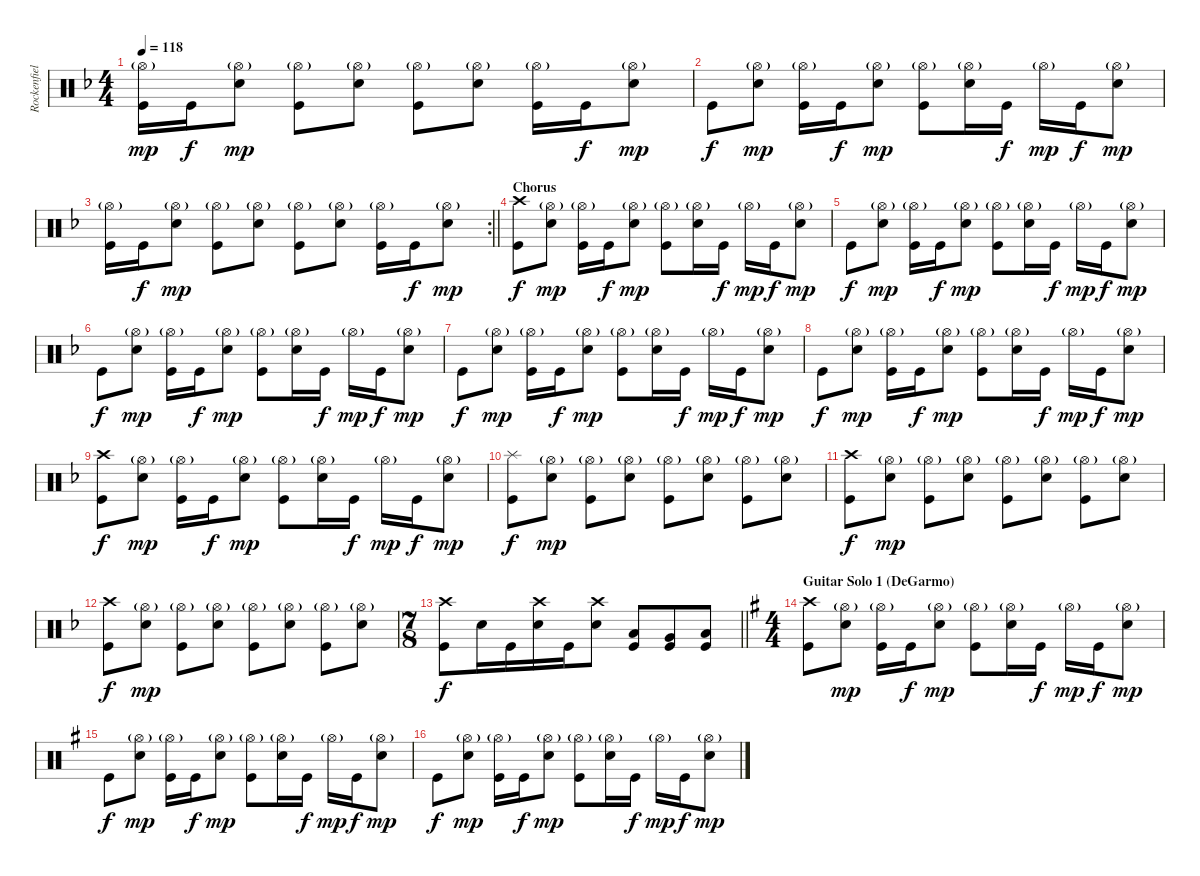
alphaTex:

\track ("Rockenfield" "Rockenfiel") {instrument percussion}
\staff {score}
\articulation defaults
\ts (4 4)
\tempo 118
\clef neutral
\ks f
("Hi-Hat (open)"{g} "Kick (hit)").16{dy mp} "Kick (hit)".16{dy f} ("Hi-Hat (open)"{g} "Snare (hit) 2").8{dy mp} ("Hi-Hat (open)"{g} "Kick (hit)").8 ("Hi-Hat (open)"{g} "Snare (hit) 2").8 ("Hi-Hat (open)"{g} "Kick (hit)").8 ("Hi-Hat (open)"{g} "Snare (hit) 2").8 ("Hi-Hat (open)"{g} "Kick (hit)").16 "Kick (hit)".16{dy f} ("Hi-Hat (open)"{g} "Snare (hit) 2").8{dy mp} |
"Kick (hit)".8{dy f} ("Hi-Hat (open)"{g} "Snare (hit) 2").8{dy mp} ("Hi-Hat (open)"{g} "Kick (hit)").16 "Kick (hit)".16{dy f} ("Hi-Hat (open)"{g} "Snare (hit) 2").8{dy mp} ("Hi-Hat (open)"{g} "Kick (hit)").8 ("Hi-Hat (open)"{g} "Snare (hit) 2").16 "Kick (hit)".16{dy f} "Hi-Hat (open)"{g}.16{dy mp} "Kick (hit)".16{dy f} ("Hi-Hat (open)"{g} "Snare (hit) 2").8{dy mp} |
\rc 2
\barLineRight lightlight
("Hi-Hat (open)"{g} "Kick (hit)").16 "Kick (hit)".16{dy f} ("Hi-Hat (open)"{g} "Snare (hit) 2").8{dy mp} ("Hi-Hat (open)"{g} "Kick (hit)").8 ("Hi-Hat (open)"{g} "Snare (hit) 2").8 ("Hi-Hat (open)"{g} "Kick (hit)").8 ("Hi-Hat (open)"{g} "Snare (hit) 2").8 ("Hi-Hat (open)"{g} "Kick (hit)").16 "Kick (hit)".16{dy f} ("Hi-Hat (open)"{g} "Snare (hit) 2").8{dy mp} |
\section ("" "Chorus")
("Crash high (hit)" "Kick (hit)").8{dy f} ("Hi-Hat (open)"{g} "Snare (hit) 2").8{dy mp} ("Hi-Hat (open)"{g} "Kick (hit)").16 "Kick (hit)".16{dy f} ("Hi-Hat (open)"{g} "Snare (hit) 2").8{dy mp} ("Hi-Hat (open)"{g} "Kick (hit)").8 ("Hi-Hat (open)"{g} "Snare (hit) 2").16 "Kick (hit)".16{dy f} "Hi-Hat (open)"{g}.16{dy mp} "Kick (hit)".16{dy f} ("Hi-Hat (open)"{g} "Snare (hit) 2").8{dy mp} |
"Kick (hit)".8{dy f} ("Hi-Hat (open)"{g} "Snare (hit) 2").8{dy mp} ("Hi-Hat (open)"{g} "Kick (hit)").16 "Kick (hit)".16{dy f} ("Hi-Hat (open)"{g} "Snare (hit) 2").8{dy mp} ("Hi-Hat (open)"{g} "Kick (hit)").8 ("Hi-Hat (open)"{g} "Snare (hit) 2").16 "Kick (hit)".16{dy f} "Hi-Hat (open)"{g}.16{dy mp} "Kick (hit)".16{dy f} ("Hi-Hat (open)"{g} "Snare (hit) 2").8{dy mp} |
"Kick (hit)".8{dy f} ("Hi-Hat (open)"{g} "Snare (hit) 2").8{dy mp} ("Hi-Hat (open)"{g} "Kick (hit)").16 "Kick (hit)".16{dy f} ("Hi-Hat (open)"{g} "Snare (hit) 2").8{dy mp} ("Hi-Hat (open)"{g} "Kick (hit)").8 ("Hi-Hat (open)"{g} "Snare (hit) 2").16 "Kick (hit)".16{dy f} "Hi-Hat (open)"{g}.16{dy mp} "Kick (hit)".16{dy f} ("Hi-Hat (open)"{g} "Snare (hit) 2").8{dy mp} |
"Kick (hit)".8{dy f} ("Hi-Hat (open)"{g} "Snare (hit) 2").8{dy mp} ("Hi-Hat (open)"{g} "Kick (hit)").16 "Kick (hit)".16{dy f} ("Hi-Hat (open)"{g} "Snare (hit) 2").8{dy mp} ("Hi-Hat (open)"{g} "Kick (hit)").8 ("Hi-Hat (open)"{g} "Snare (hit) 2").16 "Kick (hit)".16{dy f} "Hi-Hat (open)"{g}.16{dy mp} "Kick (hit)".16{dy f} ("Hi-Hat (open)"{g} "Snare (hit) 2").8{dy mp} |
"Kick (hit)".8{dy f} ("Hi-Hat (open)"{g} "Snare (hit) 2").8{dy mp} ("Hi-Hat (open)"{g} "Kick (hit)").16 "Kick (hit)".16{dy f} ("Hi-Hat (open)"{g} "Snare (hit) 2").8{dy mp} ("Hi-Hat (open)"{g} "Kick (hit)").8 ("Hi-Hat (open)"{g} "Snare (hit) 2").16 "Kick (hit)".16{dy f} "Hi-Hat (open)"{g}.16{dy mp} "Kick (hit)".16{dy f} ("Hi-Hat (open)"{g} "Snare (hit) 2").8{dy mp} |
("Crash high (hit)" "Kick (hit)").8{dy f} ("Hi-Hat (open)"{g} "Snare (hit) 2").8{dy mp} ("Hi-Hat (open)"{g} "Kick (hit)").16 "Kick (hit)".16{dy f} ("Hi-Hat (open)"{g} "Snare (hit) 2").8{dy mp} ("Hi-Hat (open)"{g} "Kick (hit)").8 ("Hi-Hat (open)"{g} "Snare (hit) 2").16 "Kick (hit)".16{dy f} "Hi-Hat (open)"{g}.16{dy mp} "Kick (hit)".16{dy f} ("Hi-Hat (open)"{g} "Snare (hit) 2").8{dy mp} |
("Splash (hit)" "Kick (hit)").8{dy f} ("Hi-Hat (open)"{g} "Snare (hit) 2").8{dy mp} ("Hi-Hat (open)"{g} "Kick (hit)").8 ("Hi-Hat (open)"{g} "Snare (hit) 2").8 ("Hi-Hat (open)"{g} "Kick (hit)").8 ("Hi-Hat (open)"{g} "Snare (hit) 2").8 ("Hi-Hat (open)"{g} "Kick (hit)").8 ("Hi-Hat (open)"{g} "Snare (hit) 2").8 |
("Crash high (hit)" "Kick (hit)").8{dy f} ("Hi-Hat (open)"{g} "Snare (hit) 2").8{dy mp} ("Hi-Hat (open)"{g} "Kick (hit)").8 ("Hi-Hat (open)"{g} "Snare (hit) 2").8 ("Hi-Hat (open)"{g} "Kick (hit)").8 ("Hi-Hat (open)"{g} "Snare (hit) 2").8 ("Hi-Hat (open)"{g} "Kick (hit)").8 ("Hi-Hat (open)"{g} "Snare (hit) 2").8 |
("Crash high (hit)" "Kick (hit)").8{dy f} ("Hi-Hat (open)"{g} "Snare (hit) 2").8{dy mp} ("Hi-Hat (open)"{g} "Kick (hit)").8 ("Hi-Hat (open)"{g} "Snare (hit) 2").8 ("Hi-Hat (open)"{g} "Kick (hit)").8 ("Hi-Hat (open)"{g} "Snare (hit) 2").8 ("Hi-Hat (open)"{g} "Kick (hit)").8 ("Hi-Hat (open)"{g} "Snare (hit) 2").8 |
\ts (7 8)
\barLineRight lightlight
("Crash high (hit)" "Kick (hit)").8{dy f} "Snare (hit) 2".16 "Kick (hit)".16 ("Crash high (hit)" "Snare (hit) 2").16 "Kick (hit)".16 ("Crash high (hit)" "Snare (hit) 2").8 ("Low Tom (hit)" "Kick (hit)").8 ("Very Low Tom (hit)" "Kick (hit)").8 ("Low Floor Tom (hit)" "Kick (hit)").8 |
\ts (4 4)
\section ("" "Guitar Solo 1 (DeGarmo)")
\ks g
("Crash high (hit)" "Kick (hit)").8 ("Hi-Hat (open)"{g} "Snare (hit) 2").8{dy mp} ("Hi-Hat (open)"{g} "Kick (hit)").16 "Kick (hit)".16{dy f} ("Hi-Hat (open)"{g} "Snare (hit) 2").8{dy mp} ("Hi-Hat (open)"{g} "Kick (hit)").8 ("Hi-Hat (open)"{g} "Snare (hit) 2").16 "Kick (hit)".16{dy f} "Hi-Hat (open)"{g}.16{dy mp} "Kick (hit)".16{dy f} ("Hi-Hat (open)"{g} "Snare (hit) 2").8{dy mp} |
"Kick (hit)".8{dy f} ("Hi-Hat (open)"{g} "Snare (hit) 2").8{dy mp} ("Hi-Hat (open)"{g} "Kick (hit)").16 "Kick (hit)".16{dy f} ("Hi-Hat (open)"{g} "Snare (hit) 2").8{dy mp} ("Hi-Hat (open)"{g} "Kick (hit)").8 ("Hi-Hat (open)"{g} "Snare (hit) 2").16 "Kick (hit)".16{dy f} "Hi-Hat (open)"{g}.16{dy mp} "Kick (hit)".16{dy f} ("Hi-Hat (open)"{g} "Snare (hit) 2").8{dy mp} |
"Kick (hit)".8{dy f} ("Hi-Hat (open)"{g} "Snare (hit) 2").8{dy mp} ("Hi-Hat (open)"{g} "Kick (hit)").16 "Kick (hit)".16{dy f} ("Hi-Hat (open)"{g} "Snare (hit) 2").8{dy mp} ("Hi-Hat (open)"{g} "Kick (hit)").8 ("Hi-Hat (open)"{g} "Snare (hit) 2").16 "Kick (hit)".16{dy f} "Hi-Hat (open)"{g}.16{dy mp} "Kick (hit)".16{dy f} ("Hi-Hat (open)"{g} "Snare (hit) 2").8{dy mp}
